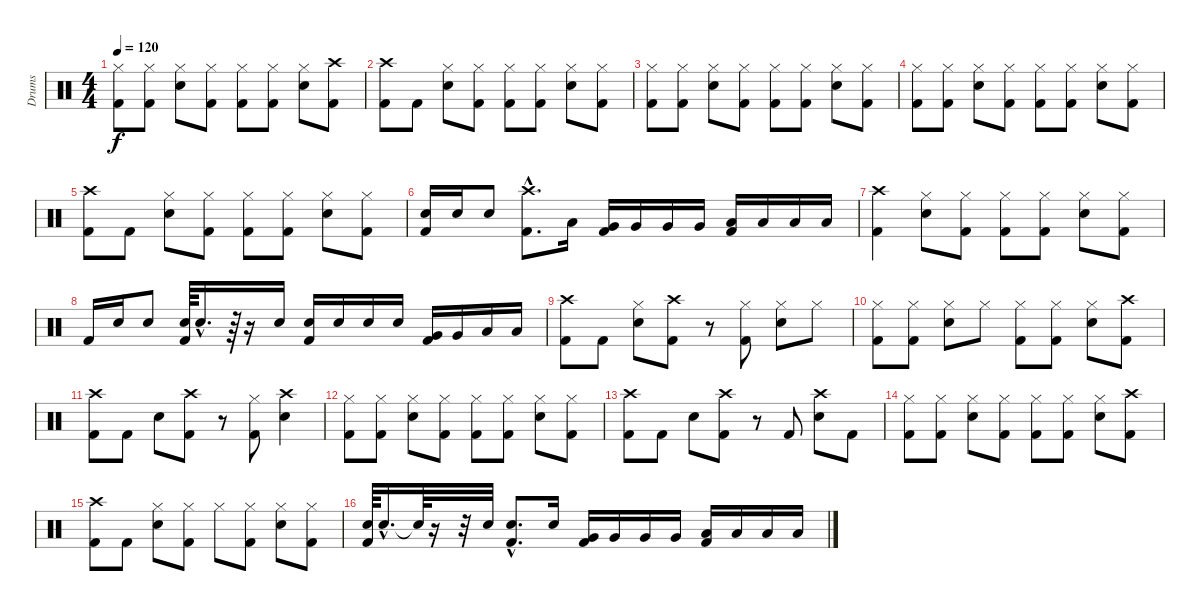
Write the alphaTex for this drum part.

\track ("Drums" "Drums") {instrument percussion}
\staff {score}
\articulation defaults
\ts (4 4)
\tempo 120
\clef neutral
\ks c
("Hi-Hat (closed)" "Kick (hit) 2").8{dy f} ("Hi-Hat (closed)" "Kick (hit) 2").8 ("Hi-Hat (closed)" "Electric Snare (hit)").8 ("Hi-Hat (closed)" "Kick (hit) 2").8 ("Hi-Hat (closed)" "Kick (hit) 2").8 ("Hi-Hat (closed)" "Kick (hit) 2").8 ("Hi-Hat (closed)" "Electric Snare (hit)").8 ("Crash high (hit)" "Kick (hit) 2").8 |
("Crash high (hit)" "Kick (hit) 2").8 "Kick (hit) 2".8 ("Hi-Hat (closed)" "Electric Snare (hit)").8 ("Hi-Hat (closed)" "Kick (hit) 2").8 ("Hi-Hat (closed)" "Kick (hit) 2").8 ("Hi-Hat (closed)" "Kick (hit) 2").8 ("Hi-Hat (closed)" "Electric Snare (hit)").8 ("Hi-Hat (closed)" "Kick (hit) 2").8 |
("Hi-Hat (closed)" "Kick (hit) 2").8 ("Hi-Hat (closed)" "Kick (hit) 2").8 ("Hi-Hat (closed)" "Electric Snare (hit)").8 ("Hi-Hat (closed)" "Kick (hit) 2").8 ("Hi-Hat (closed)" "Kick (hit) 2").8 ("Hi-Hat (closed)" "Kick (hit) 2").8 ("Hi-Hat (closed)" "Electric Snare (hit)").8 ("Hi-Hat (closed)" "Kick (hit) 2").8 |
("Hi-Hat (closed)" "Kick (hit) 2").8 ("Hi-Hat (closed)" "Kick (hit) 2").8 ("Hi-Hat (closed)" "Electric Snare (hit)").8 ("Hi-Hat (closed)" "Kick (hit) 2").8 ("Hi-Hat (closed)" "Kick (hit) 2").8 ("Hi-Hat (closed)" "Kick (hit) 2").8 ("Hi-Hat (closed)" "Electric Snare (hit)").8 ("Hi-Hat (closed)" "Kick (hit) 2").8 |
("Crash high (hit)" "Kick (hit) 2").8 "Kick (hit) 2".8 ("Hi-Hat (closed)" "Electric Snare (hit)").8 ("Hi-Hat (closed)" "Kick (hit) 2").8 ("Hi-Hat (closed)" "Kick (hit) 2").8 ("Hi-Hat (closed)" "Kick (hit) 2").8 ("Hi-Hat (closed)" "Electric Snare (hit)").8 ("Hi-Hat (closed)" "Kick (hit) 2").8 |
("Electric Snare (hit)" "Kick (hit) 2").16 "Electric Snare (hit)".16 "Electric Snare (hit)".8 ("Crash high (hit)"{hac} "Kick (hit) 2"{hac}).8{d} "Low Tom (hit)".16 ("Kick (hit) 2" "Very Low Tom (hit)").16 "Very Low Tom (hit)".16 "Very Low Tom (hit)".16 "Very Low Tom (hit)".16 ("Kick (hit) 2" "Low Floor Tom (hit)").16 "Low Floor Tom (hit)".16 "Low Floor Tom (hit)".16 "Low Floor Tom (hit)".16 |
("Crash high (hit)" "Kick (hit) 2").4 ("Hi-Hat (closed)" "Electric Snare (hit)").8 ("Hi-Hat (closed)" "Kick (hit) 2").8 ("Hi-Hat (closed)" "Kick (hit) 2").8 ("Hi-Hat (closed)" "Kick (hit) 2").8 ("Hi-Hat (closed)" "Electric Snare (hit)").8 ("Hi-Hat (closed)" "Kick (hit) 2").8 |
"Kick (hit) 2".16 "Electric Snare (hit)".16 "Electric Snare (hit)".8 ("Electric Snare (hit)" "Kick (hit) 2").64 "Electric Snare (hit)"{hac}.16{d} r.64 r.16 "Electric Snare (hit)".16 ("Electric Snare (hit)" "Kick (hit) 2").16 "Electric Snare (hit)".16 "Electric Snare (hit)".16 "Electric Snare (hit)".16 ("Kick (hit) 2" "Very Low Tom (hit)").16 "Very Low Tom (hit)".16 "Low Floor Tom (hit)".16 "Low Floor Tom (hit)".16 |
("Crash high (hit)" "Kick (hit) 2").8 "Kick (hit) 2".8 ("Hi-Hat (closed)" "Electric Snare (hit)").8 ("Crash high (hit)" "Kick (hit) 2").8 r.8 ("Hi-Hat (closed)" "Kick (hit) 2").8 ("Hi-Hat (closed)" "Electric Snare (hit)").8 "Hi-Hat (closed)".8 |
("Hi-Hat (closed)" "Kick (hit) 2").8 ("Hi-Hat (closed)" "Kick (hit) 2").8 ("Hi-Hat (closed)" "Electric Snare (hit)").8 "Hi-Hat (closed)".8 ("Hi-Hat (closed)" "Kick (hit) 2").8 ("Hi-Hat (closed)" "Kick (hit) 2").8 ("Hi-Hat (closed)" "Electric Snare (hit)").8 ("Crash high (hit)" "Kick (hit) 2").8 |
("Crash high (hit)" "Kick (hit) 2").8 "Kick (hit) 2".8 "Electric Snare (hit)".8 ("Crash high (hit)" "Kick (hit) 2").8 r.8 ("Hi-Hat (closed)" "Kick (hit) 2").8 ("Crash high (hit)" "Electric Snare (hit)").4 |
("Hi-Hat (closed)" "Kick (hit) 2").8 ("Hi-Hat (closed)" "Kick (hit) 2").8 ("Hi-Hat (closed)" "Electric Snare (hit)").8 ("Hi-Hat (closed)" "Kick (hit) 2").8 ("Hi-Hat (closed)" "Kick (hit) 2").8 ("Hi-Hat (closed)" "Kick (hit) 2").8 ("Hi-Hat (closed)" "Electric Snare (hit)").8 ("Hi-Hat (closed)" "Kick (hit) 2").8 |
("Crash high (hit)" "Kick (hit) 2").8 "Kick (hit) 2".8 "Electric Snare (hit)".8 ("Crash high (hit)" "Kick (hit) 2").8 r.8 "Kick (hit) 2".8 ("Crash high (hit)" "Electric Snare (hit)").8 "Kick (hit) 2".8 |
("Hi-Hat (closed)" "Kick (hit) 2").8 ("Hi-Hat (closed)" "Kick (hit) 2").8 ("Hi-Hat (closed)" "Electric Snare (hit)").8 ("Hi-Hat (closed)" "Kick (hit) 2").8 ("Hi-Hat (closed)" "Kick (hit) 2").8 ("Hi-Hat (closed)" "Kick (hit) 2").8 ("Hi-Hat (closed)" "Electric Snare (hit)").8 ("Crash high (hit)" "Kick (hit) 2").8 |
("Crash high (hit)" "Kick (hit) 2").8 "Kick (hit) 2".8 ("Hi-Hat (closed)" "Electric Snare (hit)").8 ("Hi-Hat (closed)" "Kick (hit) 2").8 "Hi-Hat (closed)".8 ("Hi-Hat (closed)" "Kick (hit) 2").8 ("Hi-Hat (closed)" "Electric Snare (hit)").8 ("Hi-Hat (closed)" "Kick (hit) 2").8 |
("Electric Snare (hit)" "Kick (hit) 2").64 "Electric Snare (hit)"{hac}.16{d} "Snare (hit)"{t}.64 r.16 r.32 "Electric Snare (hit)".32 ("Electric Snare (hit)"{hac} "Kick (hit) 2"{hac}).8{d} "Electric Snare (hit)".16 ("Kick (hit) 2" "Very Low Tom (hit)").16 "Very Low Tom (hit)".16 "Very Low Tom (hit)".16 "Very Low Tom (hit)".16 ("Kick (hit) 2" "Low Floor Tom (hit)").16 "Low Floor Tom (hit)".16 "Low Floor Tom (hit)".16 "Low Floor Tom (hit)".16
